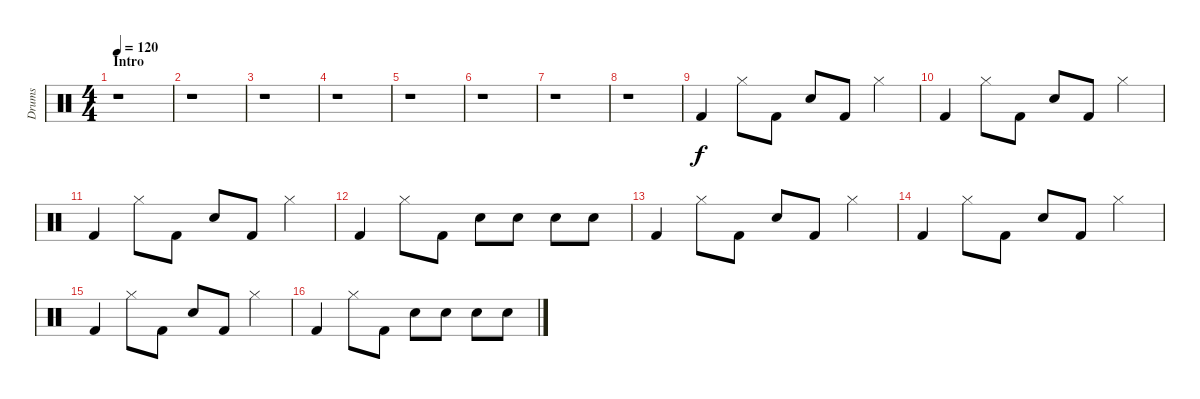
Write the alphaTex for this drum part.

\track ("Drums" "Drums") {instrument percussion}
\staff {score}
\articulation defaults
\ts (4 4)
\section ("" "Intro")
\tempo 120
\clef neutral
\ks c
r.1{dy f} |
r.1 |
r.1 |
r.1 |
r.1 |
r.1 |
r.1 |
r.1 |
"Kick (hit) 2".4 "Hi-Hat (closed)".8 "Kick (hit) 2".8 "Electric Snare (hit)".8 "Kick (hit) 2".8 "Hi-Hat (closed)".4 |
"Kick (hit) 2".4 "Hi-Hat (closed)".8 "Kick (hit) 2".8 "Electric Snare (hit)".8 "Kick (hit) 2".8 "Hi-Hat (closed)".4 |
"Kick (hit) 2".4 "Hi-Hat (closed)".8 "Kick (hit) 2".8 "Electric Snare (hit)".8 "Kick (hit) 2".8 "Hi-Hat (closed)".4 |
"Kick (hit) 2".4 "Hi-Hat (closed)".8 "Kick (hit) 2".8 "Electric Snare (hit)".8 "Electric Snare (hit)".8 "Electric Snare (hit)".8 "Electric Snare (hit)".8 |
"Kick (hit) 2".4 "Hi-Hat (closed)".8 "Kick (hit) 2".8 "Electric Snare (hit)".8 "Kick (hit) 2".8 "Hi-Hat (closed)".4 |
"Kick (hit) 2".4 "Hi-Hat (closed)".8 "Kick (hit) 2".8 "Electric Snare (hit)".8 "Kick (hit) 2".8 "Hi-Hat (closed)".4 |
"Kick (hit) 2".4 "Hi-Hat (closed)".8 "Kick (hit) 2".8 "Electric Snare (hit)".8 "Kick (hit) 2".8 "Hi-Hat (closed)".4 |
"Kick (hit) 2".4 "Hi-Hat (closed)".8 "Kick (hit) 2".8 "Electric Snare (hit)".8 "Electric Snare (hit)".8 "Electric Snare (hit)".8 "Electric Snare (hit)".8
